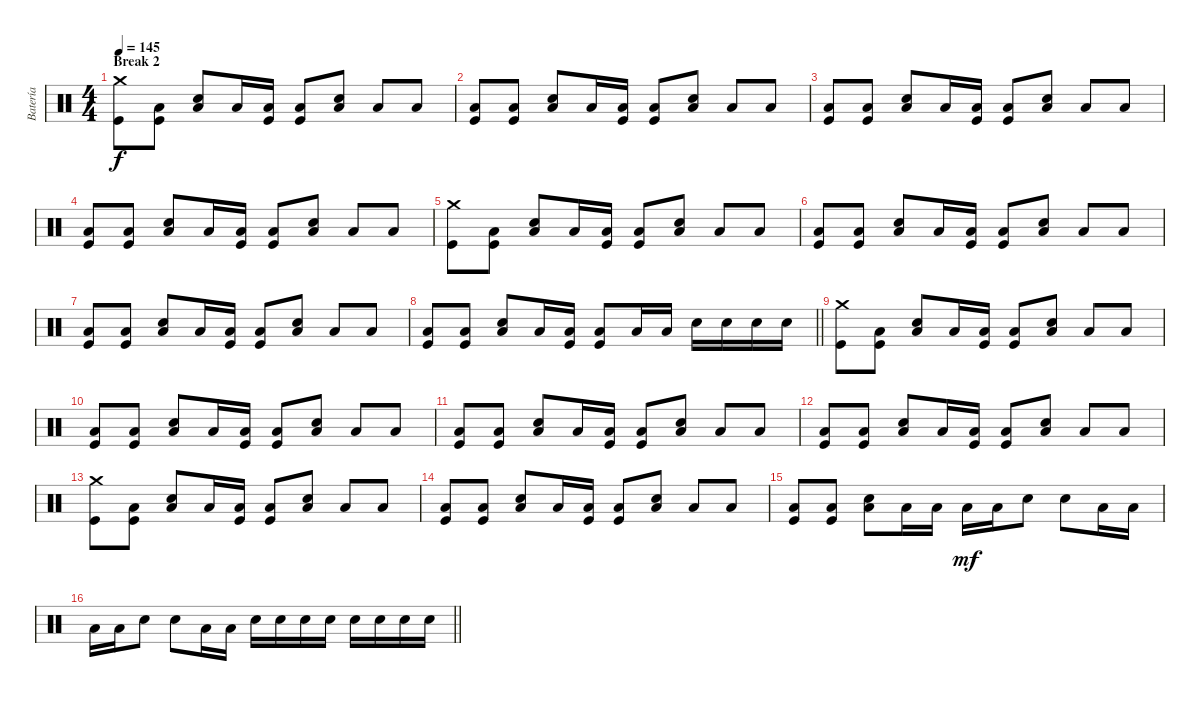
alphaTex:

\track ("Batería" "Batería") {instrument percussion}
\staff {score}
\articulation defaults
\ts (4 4)
\section ("" "Break 2")
\tempo 145
\clef neutral
\ks c
("Kick (hit)" "Crash medium (hit)").8{dy f} ("Kick (hit)" "Low Floor Tom (hit)").8 ("Electric Snare (hit)" "Low Floor Tom (hit)").8 "Low Tom (hit)".16 ("Kick (hit)" "Low Tom (hit)").16 ("Kick (hit)" "Low Floor Tom (hit)").8 ("Electric Snare (hit)" "Low Floor Tom (hit)").8 "Low Floor Tom (hit)".8 "Low Floor Tom (hit)".8 |
("Kick (hit)" "Low Floor Tom (hit)").8 ("Kick (hit)" "Low Floor Tom (hit)").8 ("Electric Snare (hit)" "Low Floor Tom (hit)").8 "Low Tom (hit)".16 ("Kick (hit)" "Low Tom (hit)").16 ("Kick (hit)" "Low Floor Tom (hit)").8 ("Electric Snare (hit)" "Low Floor Tom (hit)").8 "Low Floor Tom (hit)".8 "Low Floor Tom (hit)".8 |
("Kick (hit)" "Low Floor Tom (hit)").8 ("Kick (hit)" "Low Floor Tom (hit)").8 ("Electric Snare (hit)" "Low Floor Tom (hit)").8 "Low Tom (hit)".16 ("Kick (hit)" "Low Tom (hit)").16 ("Kick (hit)" "Low Floor Tom (hit)").8 ("Electric Snare (hit)" "Low Floor Tom (hit)").8 "Low Floor Tom (hit)".8 "Low Floor Tom (hit)".8 |
("Kick (hit)" "Low Floor Tom (hit)").8 ("Kick (hit)" "Low Floor Tom (hit)").8 ("Electric Snare (hit)" "Low Floor Tom (hit)").8 "Low Tom (hit)".16 ("Kick (hit)" "Low Tom (hit)").16 ("Kick (hit)" "Low Floor Tom (hit)").8 ("Electric Snare (hit)" "Low Floor Tom (hit)").8 "Low Floor Tom (hit)".8 "Low Floor Tom (hit)".8 |
("Kick (hit)" "Crash medium (hit)").8 ("Kick (hit)" "Low Floor Tom (hit)").8 ("Electric Snare (hit)" "Low Floor Tom (hit)").8 "Low Tom (hit)".16 ("Kick (hit)" "Low Tom (hit)").16 ("Kick (hit)" "Low Floor Tom (hit)").8 ("Electric Snare (hit)" "Low Floor Tom (hit)").8 "Low Floor Tom (hit)".8 "Low Floor Tom (hit)".8 |
("Kick (hit)" "Low Floor Tom (hit)").8 ("Kick (hit)" "Low Floor Tom (hit)").8 ("Electric Snare (hit)" "Low Floor Tom (hit)").8 "Low Tom (hit)".16 ("Kick (hit)" "Low Tom (hit)").16 ("Kick (hit)" "Low Floor Tom (hit)").8 ("Electric Snare (hit)" "Low Floor Tom (hit)").8 "Low Floor Tom (hit)".8 "Low Floor Tom (hit)".8 |
("Kick (hit)" "Low Floor Tom (hit)").8 ("Kick (hit)" "Low Floor Tom (hit)").8 ("Electric Snare (hit)" "Low Floor Tom (hit)").8 "Low Tom (hit)".16 ("Kick (hit)" "Low Tom (hit)").16 ("Kick (hit)" "Low Floor Tom (hit)").8 ("Electric Snare (hit)" "Low Floor Tom (hit)").8 "Low Floor Tom (hit)".8 "Low Floor Tom (hit)".8 |
\barLineRight lightlight
("Kick (hit)" "Low Floor Tom (hit)").8 ("Kick (hit)" "Low Floor Tom (hit)").8 ("Electric Snare (hit)" "Low Floor Tom (hit)").8 "Low Tom (hit)".16 ("Kick (hit)" "Low Tom (hit)").16 ("Kick (hit)" "Low Floor Tom (hit)").8 "Low Tom (hit)".16 "Low Tom (hit)".16 "Electric Snare (hit)".16 "Electric Snare (hit)".16 "Electric Snare (hit)".16 "Electric Snare (hit)".16 |
("Kick (hit)" "Crash medium (hit)").8 ("Kick (hit)" "Low Floor Tom (hit)").8 ("Electric Snare (hit)" "Low Floor Tom (hit)").8 "Low Tom (hit)".16 ("Kick (hit)" "Low Tom (hit)").16 ("Kick (hit)" "Low Floor Tom (hit)").8 ("Electric Snare (hit)" "Low Floor Tom (hit)").8 "Low Floor Tom (hit)".8 "Low Floor Tom (hit)".8 |
("Kick (hit)" "Low Floor Tom (hit)").8 ("Kick (hit)" "Low Floor Tom (hit)").8 ("Electric Snare (hit)" "Low Floor Tom (hit)").8 "Low Tom (hit)".16 ("Kick (hit)" "Low Tom (hit)").16 ("Kick (hit)" "Low Floor Tom (hit)").8 ("Electric Snare (hit)" "Low Floor Tom (hit)").8 "Low Floor Tom (hit)".8 "Low Floor Tom (hit)".8 |
("Kick (hit)" "Low Floor Tom (hit)").8 ("Kick (hit)" "Low Floor Tom (hit)").8 ("Electric Snare (hit)" "Low Floor Tom (hit)").8 "Low Tom (hit)".16 ("Kick (hit)" "Low Tom (hit)").16 ("Kick (hit)" "Low Floor Tom (hit)").8 ("Electric Snare (hit)" "Low Floor Tom (hit)").8 "Low Floor Tom (hit)".8 "Low Floor Tom (hit)".8 |
("Kick (hit)" "Low Floor Tom (hit)").8 ("Kick (hit)" "Low Floor Tom (hit)").8 ("Electric Snare (hit)" "Low Floor Tom (hit)").8 "Low Tom (hit)".16 ("Kick (hit)" "Low Tom (hit)").16 ("Kick (hit)" "Low Floor Tom (hit)").8 ("Electric Snare (hit)" "Low Floor Tom (hit)").8 "Low Floor Tom (hit)".8 "Low Floor Tom (hit)".8 |
("Kick (hit)" "Crash medium (hit)").8 ("Kick (hit)" "Low Floor Tom (hit)").8 ("Electric Snare (hit)" "Low Floor Tom (hit)").8 "Low Tom (hit)".16 ("Kick (hit)" "Low Tom (hit)").16 ("Kick (hit)" "Low Floor Tom (hit)").8 ("Electric Snare (hit)" "Low Floor Tom (hit)").8 "Low Floor Tom (hit)".8 "Low Floor Tom (hit)".8 |
("Kick (hit)" "Low Floor Tom (hit)").8 ("Kick (hit)" "Low Floor Tom (hit)").8 ("Electric Snare (hit)" "Low Floor Tom (hit)").8 "Low Tom (hit)".16 ("Kick (hit)" "Low Tom (hit)").16 ("Kick (hit)" "Low Floor Tom (hit)").8 ("Electric Snare (hit)" "Low Floor Tom (hit)").8 "Low Floor Tom (hit)".8 "Low Floor Tom (hit)".8 |
("Kick (hit)" "Low Floor Tom (hit)").8 ("Kick (hit)" "Low Floor Tom (hit)").8 ("Electric Snare (hit)" "Low Floor Tom (hit)").8 "Low Tom (hit)".16 "Low Tom (hit)".16 "Low Tom (hit)".16{dy mf} "Low Tom (hit)".16 "Electric Snare (hit)".8 "Electric Snare (hit)".8 "Low Tom (hit)".16 "Low Tom (hit)".16 |
\barLineRight lightlight "Low Tom (hit)".16 "Low Tom (hit)".16 "Electric Snare (hit)".8 "Electric Snare (hit)".8 "Low Tom (hit)".16 "Low Tom (hit)".16 "Electric Snare (hit)".16 "Electric Snare (hit)".16 "Electric Snare (hit)".16 "Electric Snare (hit)".16 "Electric Snare (hit)".16 "Electric Snare (hit)".16 "Electric Snare (hit)".16 "Electric Snare (hit)".16
